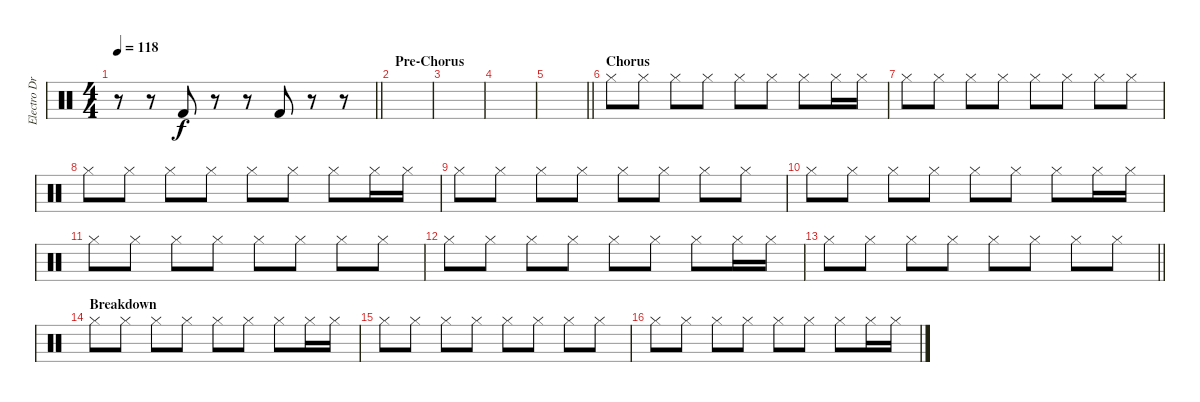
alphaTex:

\track ("Electro Drums" "Electro Dr") {instrument percussion}
\staff {score}
\articulation defaults
\ts (4 4)
\tempo 118
\clef neutral
\barLineRight lightlight
\ks c
r.8{dy f} r.8 "Kick (hit) 2".8 r.8 r.8 "Kick (hit) 2".8 r.8 r.8 |
\section ("" "Pre-Chorus")
|
|
|
\barLineRight lightlight
|
\section ("" "Chorus")
"Hi-Hat (closed)".8{volume 4} "Hi-Hat (closed)".8 "Hi-Hat (closed)".8 "Hi-Hat (closed)".8 "Hi-Hat (closed)".8 "Hi-Hat (closed)".8 "Hi-Hat (closed)".8 "Hi-Hat (closed)".16 "Hi-Hat (closed)".16 |
"Hi-Hat (closed)".8 "Hi-Hat (closed)".8 "Hi-Hat (closed)".8 "Hi-Hat (closed)".8 "Hi-Hat (closed)".8 "Hi-Hat (closed)".8 "Hi-Hat (closed)".8 "Hi-Hat (closed)".8 |
"Hi-Hat (closed)".8 "Hi-Hat (closed)".8 "Hi-Hat (closed)".8 "Hi-Hat (closed)".8 "Hi-Hat (closed)".8 "Hi-Hat (closed)".8 "Hi-Hat (closed)".8 "Hi-Hat (closed)".16 "Hi-Hat (closed)".16 |
"Hi-Hat (closed)".8 "Hi-Hat (closed)".8 "Hi-Hat (closed)".8 "Hi-Hat (closed)".8 "Hi-Hat (closed)".8 "Hi-Hat (closed)".8 "Hi-Hat (closed)".8 "Hi-Hat (closed)".8 |
"Hi-Hat (closed)".8 "Hi-Hat (closed)".8 "Hi-Hat (closed)".8 "Hi-Hat (closed)".8 "Hi-Hat (closed)".8 "Hi-Hat (closed)".8 "Hi-Hat (closed)".8 "Hi-Hat (closed)".16 "Hi-Hat (closed)".16 |
"Hi-Hat (closed)".8 "Hi-Hat (closed)".8 "Hi-Hat (closed)".8 "Hi-Hat (closed)".8 "Hi-Hat (closed)".8 "Hi-Hat (closed)".8 "Hi-Hat (closed)".8 "Hi-Hat (closed)".8 |
"Hi-Hat (closed)".8 "Hi-Hat (closed)".8 "Hi-Hat (closed)".8 "Hi-Hat (closed)".8 "Hi-Hat (closed)".8 "Hi-Hat (closed)".8 "Hi-Hat (closed)".8 "Hi-Hat (closed)".16 "Hi-Hat (closed)".16 |
\barLineRight lightlight "Hi-Hat (closed)".8 "Hi-Hat (closed)".8 "Hi-Hat (closed)".8 "Hi-Hat (closed)".8 "Hi-Hat (closed)".8 "Hi-Hat (closed)".8 "Hi-Hat (closed)".8 "Hi-Hat (closed)".8
|
\section ("" "Breakdown")
"Hi-Hat (closed)".8 "Hi-Hat (closed)".8 "Hi-Hat (closed)".8 "Hi-Hat (closed)".8 "Hi-Hat (closed)".8 "Hi-Hat (closed)".8 "Hi-Hat (closed)".8 "Hi-Hat (closed)".16 "Hi-Hat (closed)".16 |
"Hi-Hat (closed)".8 "Hi-Hat (closed)".8 "Hi-Hat (closed)".8 "Hi-Hat (closed)".8 "Hi-Hat (closed)".8 "Hi-Hat (closed)".8 "Hi-Hat (closed)".8 "Hi-Hat (closed)".8 |
"Hi-Hat (closed)".8{volume 7} "Hi-Hat (closed)".8 "Hi-Hat (closed)".8 "Hi-Hat (closed)".8 "Hi-Hat (closed)".8 "Hi-Hat (closed)".8 "Hi-Hat (closed)".8 "Hi-Hat (closed)".16 "Hi-Hat (closed)".16
